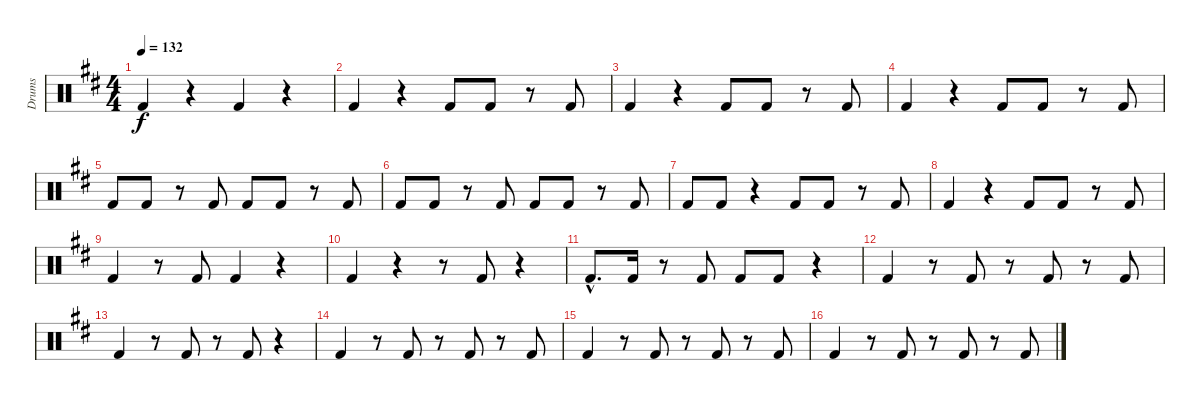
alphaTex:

\track ("Drums" "Drums") {instrument percussion}
\staff {score}
\articulation defaults
\ts (4 4)
\tempo 132
\clef neutral
\ks d "Kick (hit) 2".4{dy f}
r.4 "Kick (hit) 2".4 r.4 |
"Kick (hit) 2".4 r.4 "Kick (hit) 2".8 "Kick (hit) 2".8 r.8 "Kick (hit) 2".8 |
"Kick (hit) 2".4 r.4 "Kick (hit) 2".8 "Kick (hit) 2".8 r.8 "Kick (hit) 2".8 |
"Kick (hit) 2".4 r.4 "Kick (hit) 2".8 "Kick (hit) 2".8 r.8 "Kick (hit) 2".8 |
"Kick (hit) 2".8 "Kick (hit) 2".8 r.8 "Kick (hit) 2".8 "Kick (hit) 2".8 "Kick (hit) 2".8 r.8 "Kick (hit) 2".8 |
"Kick (hit) 2".8 "Kick (hit) 2".8 r.8 "Kick (hit) 2".8 "Kick (hit) 2".8 "Kick (hit) 2".8 r.8 "Kick (hit) 2".8 |
"Kick (hit) 2".8 "Kick (hit) 2".8 r.4 "Kick (hit) 2".8 "Kick (hit) 2".8 r.8 "Kick (hit) 2".8 |
"Kick (hit) 2".4 r.4 "Kick (hit) 2".8 "Kick (hit) 2".8 r.8 "Kick (hit) 2".8 |
"Kick (hit) 2".4 r.8 "Kick (hit) 2".8 "Kick (hit) 2".4 r.4 |
"Kick (hit) 2".4 r.4 r.8 "Kick (hit) 2".8 r.4 |
"Kick (hit) 2"{hac}.8{d} "Kick (hit) 2".16 r.8 "Kick (hit) 2".8 "Kick (hit) 2".8 "Kick (hit) 2".8 r.4 |
"Kick (hit) 2".4 r.8 "Kick (hit) 2".8 r.8 "Kick (hit) 2".8 r.8 "Kick (hit) 2".8 |
"Kick (hit) 2".4 r.8 "Kick (hit) 2".8 r.8 "Kick (hit) 2".8 r.4 |
"Kick (hit) 2".4 r.8 "Kick (hit) 2".8 r.8 "Kick (hit) 2".8 r.8 "Kick (hit) 2".8 |
"Kick (hit) 2".4 r.8 "Kick (hit) 2".8 r.8 "Kick (hit) 2".8 r.8 "Kick (hit) 2".8 |
"Kick (hit) 2".4 r.8 "Kick (hit) 2".8 r.8 "Kick (hit) 2".8 r.8 "Kick (hit) 2".8
